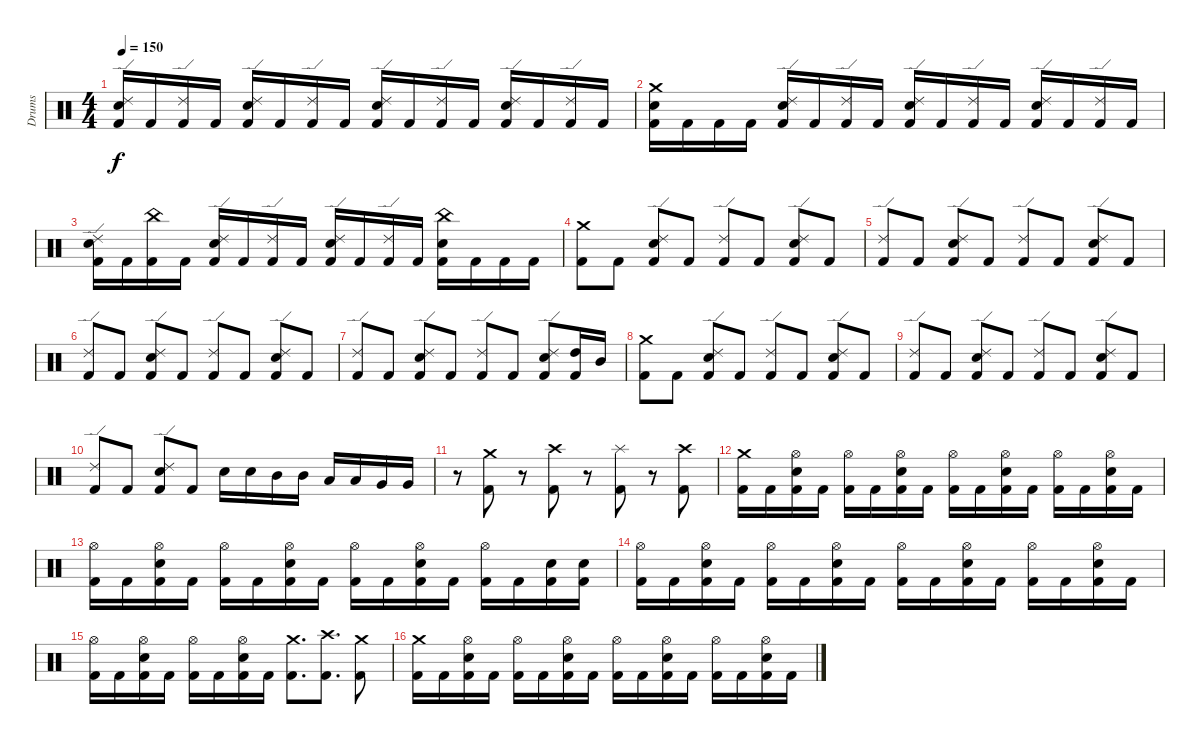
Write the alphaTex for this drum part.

\track ("Drums" "Drums") {instrument percussion}
\staff {score}
\articulation defaults
\ts (4 4)
\tempo 150
\clef neutral
\ks c
("Ride (edge) 2" "Electric Snare (hit)" "Kick (hit) 2").16{dy f} "Kick (hit) 2".16 ("Ride (edge) 2" "Kick (hit) 2").16 "Kick (hit) 2".16 ("Ride (edge) 2" "Electric Snare (hit)" "Kick (hit) 2").16 "Kick (hit) 2".16 ("Ride (edge) 2" "Kick (hit) 2").16 "Kick (hit) 2".16 ("Ride (edge) 2" "Electric Snare (hit)" "Kick (hit) 2").16 "Kick (hit) 2".16 ("Ride (edge) 2" "Kick (hit) 2").16 "Kick (hit) 2".16 ("Ride (edge) 2" "Electric Snare (hit)" "Kick (hit) 2").16 "Kick (hit) 2".16 ("Ride (edge) 2" "Kick (hit) 2").16 "Kick (hit) 2".16 |
("Crash medium (hit)" "Electric Snare (hit)" "Kick (hit) 2").16 "Kick (hit) 2".16 "Kick (hit) 2".16 "Kick (hit) 2".16 ("Ride (edge) 2" "Electric Snare (hit)" "Kick (hit) 2").16 "Kick (hit) 2".16 ("Ride (edge) 2" "Kick (hit) 2").16 "Kick (hit) 2".16 ("Ride (edge) 2" "Electric Snare (hit)" "Kick (hit) 2").16 "Kick (hit) 2".16 ("Ride (edge) 2" "Kick (hit) 2").16 "Kick (hit) 2".16 ("Ride (edge) 2" "Electric Snare (hit)" "Kick (hit) 2").16 "Kick (hit) 2".16 ("Ride (edge) 2" "Kick (hit) 2").16 "Kick (hit) 2".16 |
("Ride (edge) 2" "Electric Snare (hit)" "Kick (hit) 2").16 "Kick (hit) 2".16 ("China (hit)" "Kick (hit) 2").16 "Kick (hit) 2".16 ("Ride (edge) 2" "Electric Snare (hit)" "Kick (hit) 2").16 "Kick (hit) 2".16 ("Ride (edge) 2" "Kick (hit) 2").16 "Kick (hit) 2".16 ("Ride (edge) 2" "Electric Snare (hit)" "Kick (hit) 2").16 "Kick (hit) 2".16 ("Ride (edge) 2" "Kick (hit) 2").16 "Kick (hit) 2".16 ("China (hit)" "Electric Snare (hit)" "Kick (hit) 2").16 "Kick (hit) 2".16 "Kick (hit) 2".16 "Kick (hit) 2".16 |
("Kick (hit) 2" "Crash medium (hit)").8 "Kick (hit) 2".8 ("Electric Snare (hit)" "Kick (hit) 2" "Ride (edge) 2").8 "Kick (hit) 2".8 ("Kick (hit) 2" "Ride (edge) 2").8 "Kick (hit) 2".8 ("Electric Snare (hit)" "Kick (hit) 2" "Ride (edge) 2").8 "Kick (hit) 2".8 |
("Ride (edge) 2" "Kick (hit) 2").8 "Kick (hit) 2".8 ("Electric Snare (hit)" "Kick (hit) 2" "Ride (edge) 2").8 "Kick (hit) 2".8 ("Kick (hit) 2" "Ride (edge) 2").8 "Kick (hit) 2".8 ("Electric Snare (hit)" "Kick (hit) 2" "Ride (edge) 2").8 "Kick (hit) 2".8 |
("Ride (edge) 2" "Kick (hit) 2").8 "Kick (hit) 2".8 ("Electric Snare (hit)" "Kick (hit) 2" "Ride (edge) 2").8 "Kick (hit) 2".8 ("Kick (hit) 2" "Ride (edge) 2").8 "Kick (hit) 2".8 ("Electric Snare (hit)" "Kick (hit) 2" "Ride (edge) 2").8 "Kick (hit) 2".8 |
("Ride (edge) 2" "Kick (hit) 2").8 "Kick (hit) 2".8 ("Electric Snare (hit)" "Kick (hit) 2" "Ride (edge) 2").8 "Kick (hit) 2".8 ("Kick (hit) 2" "Ride (edge) 2").8 "Kick (hit) 2".8 ("Electric Snare (hit)" "Kick (hit) 2" "Ride (edge) 2").8 ("High Tom (hit)" "Kick (hit) 2").16 "Mid Tom (hit)".16 |
("Kick (hit) 2" "Crash medium (hit)").8 "Kick (hit) 2".8 ("Electric Snare (hit)" "Kick (hit) 2" "Ride (edge) 2").8 "Kick (hit) 2".8 ("Kick (hit) 2" "Ride (edge) 2").8 "Kick (hit) 2".8 ("Electric Snare (hit)" "Kick (hit) 2" "Ride (edge) 2").8 "Kick (hit) 2".8 |
("Ride (edge) 2" "Kick (hit) 2").8 "Kick (hit) 2".8 ("Electric Snare (hit)" "Kick (hit) 2" "Ride (edge) 2").8 "Kick (hit) 2".8 ("Kick (hit) 2" "Ride (edge) 2").8 "Kick (hit) 2".8 ("Electric Snare (hit)" "Kick (hit) 2" "Ride (edge) 2").8 "Kick (hit) 2".8 |
("Ride (edge) 2" "Kick (hit) 2").8 "Kick (hit) 2".8 ("Electric Snare (hit)" "Kick (hit) 2" "Ride (edge) 2").8 "Kick (hit) 2".8 "Electric Snare (hit)".16 "Electric Snare (hit)".16 "Mid Tom (hit)".16 "Mid Tom (hit)".16 "Low Tom (hit)".16 "Low Tom (hit)".16 "Very Low Tom (hit)".16 "Very Low Tom (hit)".16 |
r.8 ("Crash medium (hit)" "Kick (hit) 2").8 r.8 ("Crash high (hit)" "Kick (hit) 2").8 r.8 ("Splash (hit)" "Kick (hit) 2").8 r.8 ("Crash high (hit)" "Kick (hit) 2").8 |
("Crash medium (hit)" "Kick (hit) 2").16 "Kick (hit) 2".16 ("Hi-Hat (open)" "Electric Snare (hit)" "Kick (hit) 2").16 "Kick (hit) 2".16 ("Hi-Hat (open)" "Kick (hit) 2").16 "Kick (hit) 2".16 ("Hi-Hat (open)" "Electric Snare (hit)" "Kick (hit) 2").16 "Kick (hit) 2".16 ("Hi-Hat (open)" "Kick (hit) 2").16 "Kick (hit) 2".16 ("Hi-Hat (open)" "Electric Snare (hit)" "Kick (hit) 2").16 "Kick (hit) 2".16 ("Hi-Hat (open)" "Kick (hit) 2").16 "Kick (hit) 2".16 ("Hi-Hat (open)" "Electric Snare (hit)" "Kick (hit) 2").16 "Kick (hit) 2".16 |
("Hi-Hat (open)" "Kick (hit) 2").16 "Kick (hit) 2".16 ("Hi-Hat (open)" "Electric Snare (hit)" "Kick (hit) 2").16 "Kick (hit) 2".16 ("Hi-Hat (open)" "Kick (hit) 2").16 "Kick (hit) 2".16 ("Hi-Hat (open)" "Electric Snare (hit)" "Kick (hit) 2").16 "Kick (hit) 2".16 ("Hi-Hat (open)" "Kick (hit) 2").16 "Kick (hit) 2".16 ("Hi-Hat (open)" "Electric Snare (hit)" "Kick (hit) 2").16 "Kick (hit) 2".16 ("Hi-Hat (open)" "Kick (hit) 2").16 "Kick (hit) 2".16 ("Electric Snare (hit)" "Kick (hit) 2").16 ("Electric Snare (hit)" "Kick (hit) 2").16 |
("Hi-Hat (open)" "Kick (hit) 2").16 "Kick (hit) 2".16 ("Hi-Hat (open)" "Electric Snare (hit)" "Kick (hit) 2").16 "Kick (hit) 2".16 ("Hi-Hat (open)" "Kick (hit) 2").16 "Kick (hit) 2".16 ("Hi-Hat (open)" "Electric Snare (hit)" "Kick (hit) 2").16 "Kick (hit) 2".16 ("Hi-Hat (open)" "Kick (hit) 2").16 "Kick (hit) 2".16 ("Hi-Hat (open)" "Electric Snare (hit)" "Kick (hit) 2").16 "Kick (hit) 2".16 ("Hi-Hat (open)" "Kick (hit) 2").16 "Kick (hit) 2".16 ("Hi-Hat (open)" "Electric Snare (hit)" "Kick (hit) 2").16 "Kick (hit) 2".16 |
("Hi-Hat (open)" "Kick (hit) 2").16 "Kick (hit) 2".16 ("Hi-Hat (open)" "Electric Snare (hit)" "Kick (hit) 2").16 "Kick (hit) 2".16 ("Hi-Hat (open)" "Kick (hit) 2").16 "Kick (hit) 2".16 ("Hi-Hat (open)" "Electric Snare (hit)" "Kick (hit) 2").16 "Kick (hit) 2".16 ("Crash medium (hit)" "Kick (hit) 2").8{d} ("Crash high (hit)" "Kick (hit) 2").8{d} ("Crash medium (hit)" "Kick (hit) 2").8 |
("Crash medium (hit)" "Kick (hit) 2").16 "Kick (hit) 2".16 ("Hi-Hat (open)" "Electric Snare (hit)" "Kick (hit) 2").16 "Kick (hit) 2".16 ("Hi-Hat (open)" "Kick (hit) 2").16 "Kick (hit) 2".16 ("Hi-Hat (open)" "Electric Snare (hit)" "Kick (hit) 2").16 "Kick (hit) 2".16 ("Hi-Hat (open)" "Kick (hit) 2").16 "Kick (hit) 2".16 ("Hi-Hat (open)" "Electric Snare (hit)" "Kick (hit) 2").16 "Kick (hit) 2".16 ("Hi-Hat (open)" "Kick (hit) 2").16 "Kick (hit) 2".16 ("Hi-Hat (open)" "Electric Snare (hit)" "Kick (hit) 2").16 "Kick (hit) 2".16
